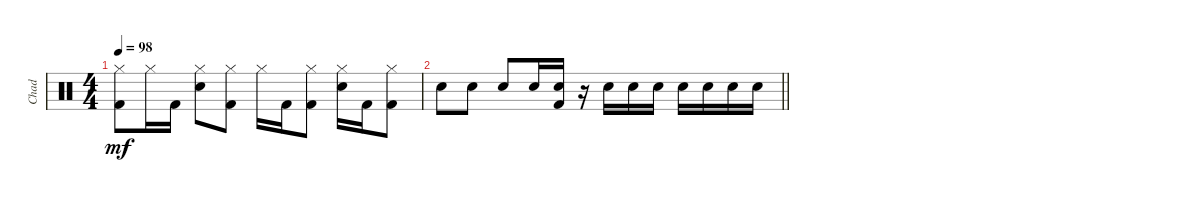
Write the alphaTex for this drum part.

\track ("Chad" "Chad") {instrument percussion}
\staff {score}
\articulation defaults
\ts (4 4)
\tempo 98
\clef neutral
\ks c
("Hi-Hat (closed)" "Kick (hit) 2").8{dy mf} "Hi-Hat (closed)".16 "Kick (hit) 2".16 ("Hi-Hat (closed)" "Snare (hit) 2").8 ("Hi-Hat (closed)" "Kick (hit) 2").8 "Hi-Hat (closed)".16 "Kick (hit) 2".16 ("Hi-Hat (closed)" "Kick (hit) 2").8 ("Hi-Hat (closed)" "Snare (hit) 2").16 "Kick (hit) 2".16 ("Hi-Hat (closed)" "Kick (hit) 2").8 |
\barLineRight lightlight "Snare (hit) 2".8 "Snare (hit) 2".8 "Snare (hit) 2".8 "Snare (hit) 2".16
("Snare (hit) 2" "Kick (hit) 2").16 r.16 "Snare (hit) 2".16 "Snare (hit) 2".16 "Snare (hit) 2".16 "Snare (hit) 2".16 "Snare (hit) 2".16 "Snare (hit) 2".16 "Snare (hit) 2".16
